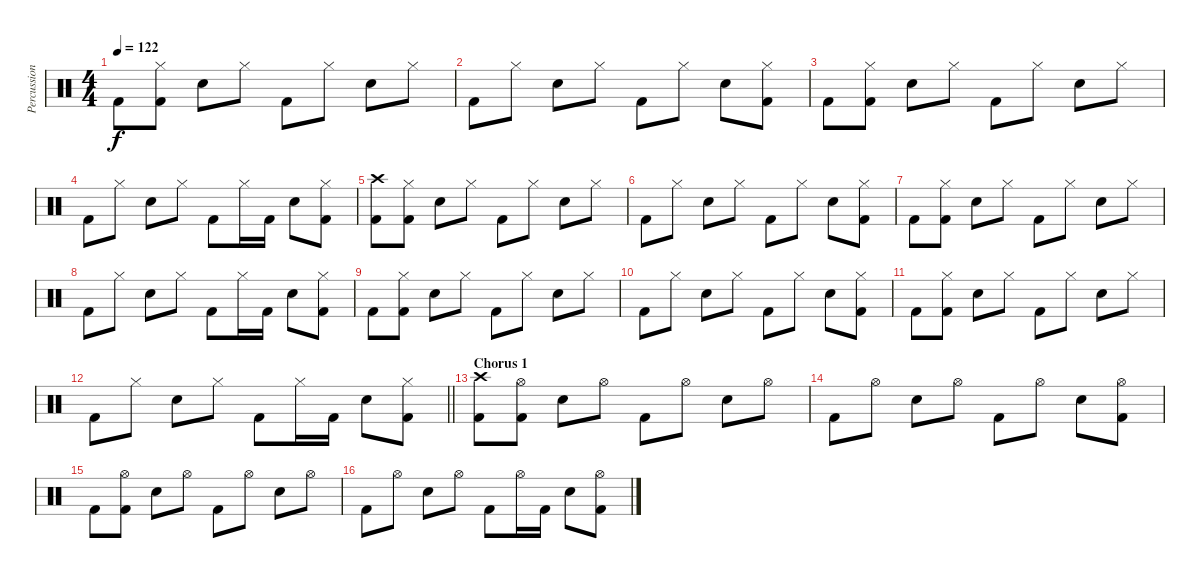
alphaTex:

\track ("Percussion" "Percussion") {instrument percussion}
\staff {score}
\articulation defaults
\ts (4 4)
\tempo 122
\clef neutral
\ks c "Kick (hit) 2".8{dy f}
("Hi-Hat (closed)" "Kick (hit) 2").8 "Electric Snare (hit)".8 "Hi-Hat (closed)".8 "Kick (hit) 2".8 "Hi-Hat (closed)".8 "Electric Snare (hit)".8 "Hi-Hat (closed)".8 |
"Kick (hit) 2".8 "Hi-Hat (closed)".8 "Electric Snare (hit)".8 "Hi-Hat (closed)".8 "Kick (hit) 2".8 "Hi-Hat (closed)".8 "Electric Snare (hit)".8 ("Hi-Hat (closed)" "Kick (hit) 2").8 |
"Kick (hit) 2".8 ("Hi-Hat (closed)" "Kick (hit) 2").8 "Electric Snare (hit)".8 "Hi-Hat (closed)".8 "Kick (hit) 2".8 "Hi-Hat (closed)".8 "Electric Snare (hit)".8 "Hi-Hat (closed)".8 |
"Kick (hit) 2".8 "Hi-Hat (closed)".8 "Electric Snare (hit)".8 "Hi-Hat (closed)".8 "Kick (hit) 2".8 "Hi-Hat (closed)".16 "Kick (hit) 2".16 "Electric Snare (hit)".8 ("Hi-Hat (closed)" "Kick (hit) 2").8 |
("Crash high (hit)" "Kick (hit) 2").8 ("Hi-Hat (closed)" "Kick (hit) 2").8 "Electric Snare (hit)".8 "Hi-Hat (closed)".8 "Kick (hit) 2".8 "Hi-Hat (closed)".8 "Electric Snare (hit)".8 "Hi-Hat (closed)".8 |
"Kick (hit) 2".8 "Hi-Hat (closed)".8 "Electric Snare (hit)".8 "Hi-Hat (closed)".8 "Kick (hit) 2".8 "Hi-Hat (closed)".8 "Electric Snare (hit)".8 ("Hi-Hat (closed)" "Kick (hit) 2").8 |
"Kick (hit) 2".8 ("Hi-Hat (closed)" "Kick (hit) 2").8 "Electric Snare (hit)".8 "Hi-Hat (closed)".8 "Kick (hit) 2".8 "Hi-Hat (closed)".8 "Electric Snare (hit)".8 "Hi-Hat (closed)".8 |
"Kick (hit) 2".8 "Hi-Hat (closed)".8 "Electric Snare (hit)".8 "Hi-Hat (closed)".8 "Kick (hit) 2".8 "Hi-Hat (closed)".16 "Kick (hit) 2".16 "Electric Snare (hit)".8 ("Hi-Hat (closed)" "Kick (hit) 2").8 |
"Kick (hit) 2".8 ("Hi-Hat (closed)" "Kick (hit) 2").8 "Electric Snare (hit)".8 "Hi-Hat (closed)".8 "Kick (hit) 2".8 "Hi-Hat (closed)".8 "Electric Snare (hit)".8 "Hi-Hat (closed)".8 |
"Kick (hit) 2".8 "Hi-Hat (closed)".8 "Electric Snare (hit)".8 "Hi-Hat (closed)".8 "Kick (hit) 2".8 "Hi-Hat (closed)".8 "Electric Snare (hit)".8 ("Hi-Hat (closed)" "Kick (hit) 2").8 |
"Kick (hit) 2".8 ("Hi-Hat (closed)" "Kick (hit) 2").8 "Electric Snare (hit)".8 "Hi-Hat (closed)".8 "Kick (hit) 2".8 "Hi-Hat (closed)".8 "Electric Snare (hit)".8 "Hi-Hat (closed)".8 |
\barLineRight lightlight "Kick (hit) 2".8 "Hi-Hat (closed)".8 "Electric Snare (hit)".8 "Hi-Hat (closed)".8 "Kick (hit) 2".8 "Hi-Hat (closed)".16 "Kick (hit) 2".16 "Electric Snare (hit)".8
("Hi-Hat (closed)" "Kick (hit) 2").8 |
\section ("" "Chorus 1")
("Crash high (hit)" "Kick (hit) 2").8 ("Hi-Hat (open)" "Kick (hit) 2").8 "Electric Snare (hit)".8 "Hi-Hat (open)".8 "Kick (hit) 2".8 "Hi-Hat (open)".8 "Electric Snare (hit)".8 "Hi-Hat (open)".8 |
"Kick (hit) 2".8 "Hi-Hat (open)".8 "Electric Snare (hit)".8 "Hi-Hat (open)".8 "Kick (hit) 2".8 "Hi-Hat (open)".8 "Electric Snare (hit)".8 ("Hi-Hat (open)" "Kick (hit) 2").8 |
"Kick (hit) 2".8 ("Hi-Hat (open)" "Kick (hit) 2").8 "Electric Snare (hit)".8 "Hi-Hat (open)".8 "Kick (hit) 2".8 "Hi-Hat (open)".8 "Electric Snare (hit)".8 "Hi-Hat (open)".8 |
"Kick (hit) 2".8 "Hi-Hat (open)".8 "Electric Snare (hit)".8 "Hi-Hat (open)".8 "Kick (hit) 2".8 "Hi-Hat (open)".16 "Kick (hit) 2".16 "Electric Snare (hit)".8 ("Hi-Hat (open)" "Kick (hit) 2").8
